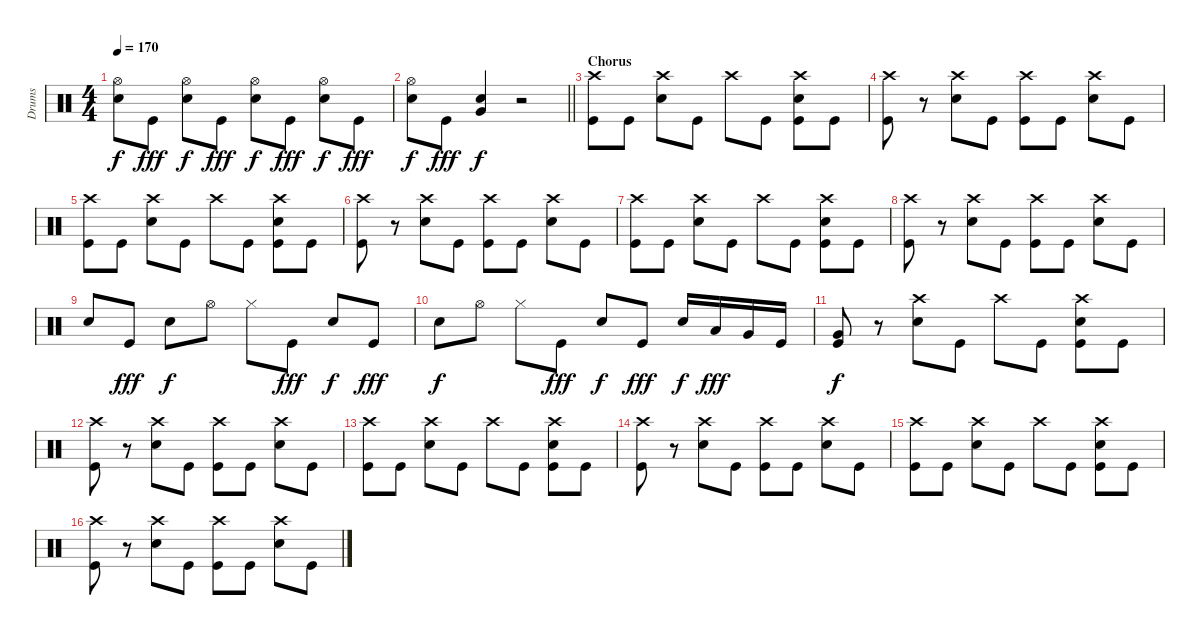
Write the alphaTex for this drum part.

\track ("Drums" "Drums") {instrument percussion}
\staff {score}
\articulation defaults
\ts (4 4)
\tempo 170
\clef neutral
\ks c
("Hi-Hat (open)" "Electric Snare (hit)").8{dy f} "Kick (hit)".8{dy fff} ("Hi-Hat (open)" "Electric Snare (hit)").8{dy f} "Kick (hit)".8{dy fff} ("Hi-Hat (open)" "Electric Snare (hit)").8{dy f} "Kick (hit)".8{dy fff} ("Hi-Hat (open)" "Electric Snare (hit)").8{dy f} "Kick (hit)".8{dy fff} |
\barLineRight lightlight
("Hi-Hat (open)" "Electric Snare (hit)").8{dy f} "Kick (hit)".8{dy fff} ("Electric Snare (hit)" "Very Low Tom (hit)").4{dy f} r.2 |
\section ("" "Chorus")
("Crash high (hit)" "Kick (hit)").8 "Kick (hit)".8 ("Crash high (hit)" "Electric Snare (hit)").8 "Kick (hit)".8 "Crash high (hit)".8 "Kick (hit)".8 ("Crash high (hit)" "Electric Snare (hit)" "Kick (hit)").8 "Kick (hit)".8 |
("Crash high (hit)" "Kick (hit)").8 r.8 ("Crash high (hit)" "Electric Snare (hit)").8 "Kick (hit)".8 ("Crash high (hit)" "Kick (hit)").8 "Kick (hit)".8 ("Crash high (hit)" "Electric Snare (hit)").8 "Kick (hit)".8 |
("Crash high (hit)" "Kick (hit)").8 "Kick (hit)".8 ("Crash high (hit)" "Electric Snare (hit)").8 "Kick (hit)".8 "Crash high (hit)".8 "Kick (hit)".8 ("Crash high (hit)" "Electric Snare (hit)" "Kick (hit)").8 "Kick (hit)".8 |
("Crash high (hit)" "Kick (hit)").8 r.8 ("Crash high (hit)" "Electric Snare (hit)").8 "Kick (hit)".8 ("Crash high (hit)" "Kick (hit)").8 "Kick (hit)".8 ("Crash high (hit)" "Electric Snare (hit)").8 "Kick (hit)".8 |
("Crash high (hit)" "Kick (hit)").8 "Kick (hit)".8 ("Crash high (hit)" "Electric Snare (hit)").8 "Kick (hit)".8 "Crash high (hit)".8 "Kick (hit)".8 ("Crash high (hit)" "Electric Snare (hit)" "Kick (hit)").8 "Kick (hit)".8 |
("Crash high (hit)" "Kick (hit)").8 r.8 ("Crash high (hit)" "Electric Snare (hit)").8 "Kick (hit)".8 ("Crash high (hit)" "Kick (hit)").8 "Kick (hit)".8 ("Crash high (hit)" "Electric Snare (hit)").8 "Kick (hit)".8 |
"Electric Snare (hit)".8 "Kick (hit)".8{dy fff} "Electric Snare (hit)".8{dy f} "Hi-Hat (open)".8 "Hi-Hat (closed)".8 "Kick (hit)".8{dy fff} "Electric Snare (hit)".8{dy f} "Kick (hit)".8{dy fff} |
"Electric Snare (hit)".8{dy f} "Hi-Hat (open)".8 "Hi-Hat (closed)".8 "Kick (hit)".8{dy fff} "Electric Snare (hit)".8{dy f} "Kick (hit)".8{dy fff} "Electric Snare (hit)".16{dy f} "Low Tom (hit)".16{dy fff} "Very Low Tom (hit)".16 "Kick (hit)".16 |
("Very Low Tom (hit)" "Kick (hit)").8{dy f} r.8 ("Crash high (hit)" "Electric Snare (hit)").8 "Kick (hit)".8 "Crash high (hit)".8 "Kick (hit)".8 ("Crash high (hit)" "Electric Snare (hit)" "Kick (hit)").8 "Kick (hit)".8 |
("Crash high (hit)" "Kick (hit)").8 r.8 ("Crash high (hit)" "Electric Snare (hit)").8 "Kick (hit)".8 ("Crash high (hit)" "Kick (hit)").8 "Kick (hit)".8 ("Crash high (hit)" "Electric Snare (hit)").8 "Kick (hit)".8 |
("Crash high (hit)" "Kick (hit)").8 "Kick (hit)".8 ("Crash high (hit)" "Electric Snare (hit)").8 "Kick (hit)".8 "Crash high (hit)".8 "Kick (hit)".8 ("Crash high (hit)" "Electric Snare (hit)" "Kick (hit)").8 "Kick (hit)".8 |
("Crash high (hit)" "Kick (hit)").8 r.8 ("Crash high (hit)" "Electric Snare (hit)").8 "Kick (hit)".8 ("Crash high (hit)" "Kick (hit)").8 "Kick (hit)".8 ("Crash high (hit)" "Electric Snare (hit)").8 "Kick (hit)".8 |
("Crash high (hit)" "Kick (hit)").8 "Kick (hit)".8 ("Crash high (hit)" "Electric Snare (hit)").8 "Kick (hit)".8 "Crash high (hit)".8 "Kick (hit)".8 ("Crash high (hit)" "Electric Snare (hit)" "Kick (hit)").8 "Kick (hit)".8 |
("Crash high (hit)" "Kick (hit)").8 r.8 ("Crash high (hit)" "Electric Snare (hit)").8 "Kick (hit)".8 ("Crash high (hit)" "Kick (hit)").8 "Kick (hit)".8 ("Crash high (hit)" "Electric Snare (hit)").8 "Kick (hit)".8
